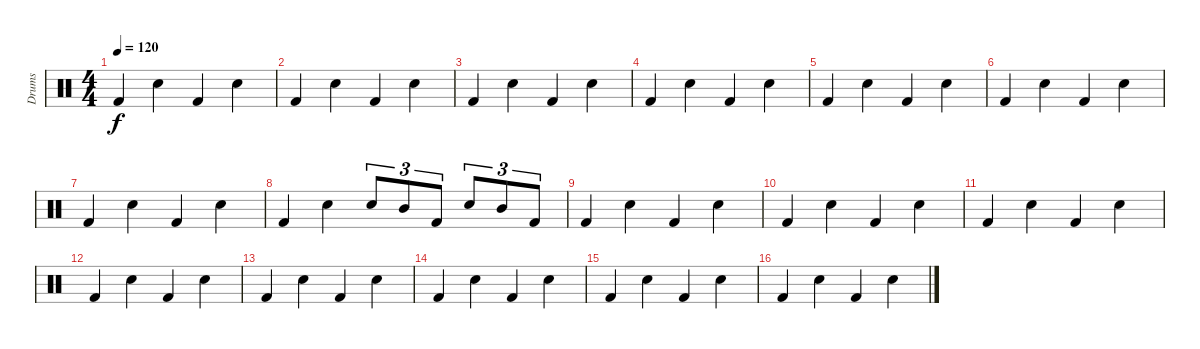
\track ("Drums" "Drums") {instrument percussion}
\staff {score}
\articulation defaults
\ts (4 4)
\tempo 120
\clef neutral
\ks c "Kick (hit) 2".4{dy f} "Electric Snare (hit)".4 "Kick (hit) 2".4 "Electric Snare (hit)".4
|
"Kick (hit) 2".4 "Electric Snare (hit)".4 "Kick (hit) 2".4 "Electric Snare (hit)".4 |
"Kick (hit) 2".4 "Electric Snare (hit)".4 "Kick (hit) 2".4 "Electric Snare (hit)".4 |
"Kick (hit) 2".4 "Electric Snare (hit)".4 "Kick (hit) 2".4 "Electric Snare (hit)".4 |
"Kick (hit) 2".4 "Electric Snare (hit)".4 "Kick (hit) 2".4 "Electric Snare (hit)".4 |
"Kick (hit) 2".4 "Electric Snare (hit)".4 "Kick (hit) 2".4 "Electric Snare (hit)".4 |
"Kick (hit) 2".4 "Electric Snare (hit)".4 "Kick (hit) 2".4 "Electric Snare (hit)".4 |
"Kick (hit) 2".4 "Electric Snare (hit)".4 "Electric Snare (hit)".8{tu (3 2)} "Mid Tom (hit)".8{tu (3 2)} "Kick (hit) 2".8{tu (3 2)} "Electric Snare (hit)".8{tu (3 2)} "Mid Tom (hit)".8{tu (3 2)} "Kick (hit) 2".8{tu (3 2)} |
"Kick (hit) 2".4 "Electric Snare (hit)".4 "Kick (hit) 2".4 "Electric Snare (hit)".4 |
"Kick (hit) 2".4 "Electric Snare (hit)".4 "Kick (hit) 2".4 "Electric Snare (hit)".4 |
"Kick (hit) 2".4 "Electric Snare (hit)".4 "Kick (hit) 2".4 "Electric Snare (hit)".4 |
"Kick (hit) 2".4 "Electric Snare (hit)".4 "Kick (hit) 2".4 "Electric Snare (hit)".4 |
"Kick (hit) 2".4 "Electric Snare (hit)".4 "Kick (hit) 2".4 "Electric Snare (hit)".4 |
"Kick (hit) 2".4 "Electric Snare (hit)".4 "Kick (hit) 2".4 "Electric Snare (hit)".4 |
"Kick (hit) 2".4 "Electric Snare (hit)".4 "Kick (hit) 2".4 "Electric Snare (hit)".4 |
"Kick (hit) 2".4 "Electric Snare (hit)".4 "Kick (hit) 2".4 "Electric Snare (hit)".4
